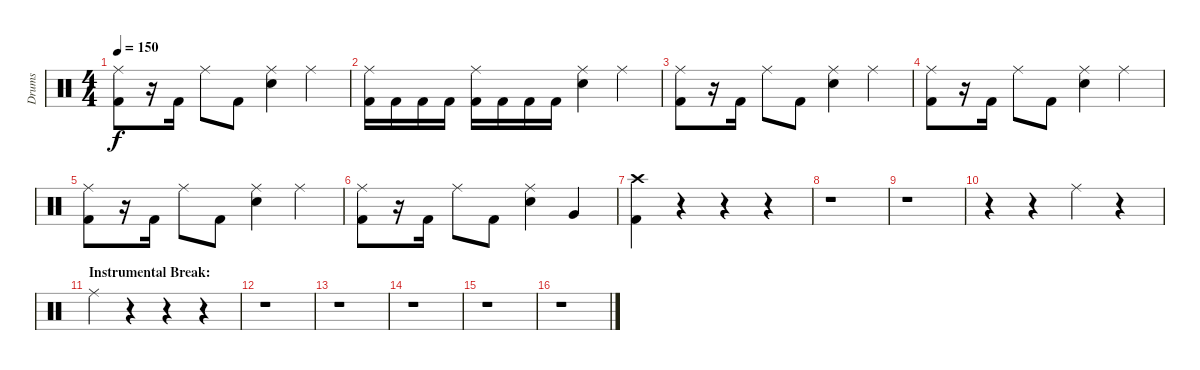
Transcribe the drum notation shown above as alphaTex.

\track ("Drums" "Drums") {instrument percussion}
\staff {score}
\articulation defaults
\ts (4 4)
\tempo 150
\clef neutral
\ks c
("Ride (middle)" "Kick (hit) 2").8{dy f} r.16 "Kick (hit) 2".16 "Ride (middle)".8 "Kick (hit) 2".8 ("Ride (middle)" "Electric Snare (hit)").4 "Ride (middle)".4 |
("Ride (middle)" "Kick (hit) 2").16 "Kick (hit) 2".16 "Kick (hit) 2".16 "Kick (hit) 2".16 ("Ride (middle)" "Kick (hit) 2").16 "Kick (hit) 2".16 "Kick (hit) 2".16 "Kick (hit) 2".16 ("Ride (middle)" "Electric Snare (hit)").4 "Ride (middle)".4 |
("Ride (middle)" "Kick (hit) 2").8 r.16 "Kick (hit) 2".16 "Ride (middle)".8 "Kick (hit) 2".8 ("Ride (middle)" "Electric Snare (hit)").4 "Ride (middle)".4 |
("Ride (middle)" "Kick (hit) 2").8 r.16 "Kick (hit) 2".16 "Ride (middle)".8 "Kick (hit) 2".8 ("Ride (middle)" "Electric Snare (hit)").4 "Ride (middle)".4 |
("Ride (middle)" "Kick (hit) 2").8 r.16 "Kick (hit) 2".16 "Ride (middle)".8 "Kick (hit) 2".8 ("Ride (middle)" "Electric Snare (hit)").4 "Ride (middle)".4 |
("Ride (middle)" "Kick (hit) 2").8 r.16 "Kick (hit) 2".16 "Ride (middle)".8 "Kick (hit) 2".8 ("Ride (middle)" "Electric Snare (hit)").4 "Very Low Tom (hit)".4 |
("Crash high (hit)" "Kick (hit) 2").4 r.4 r.4 r.4 |
r.1 |
r.1 |
r.4 r.4 "Ride (middle)".4 r.4 |
\section ("" "Instrumental Break:")
"Ride (middle)".4 r.4 r.4 r.4 |
r.1 |
r.1 |
r.1 |
r.1 |
r.1
